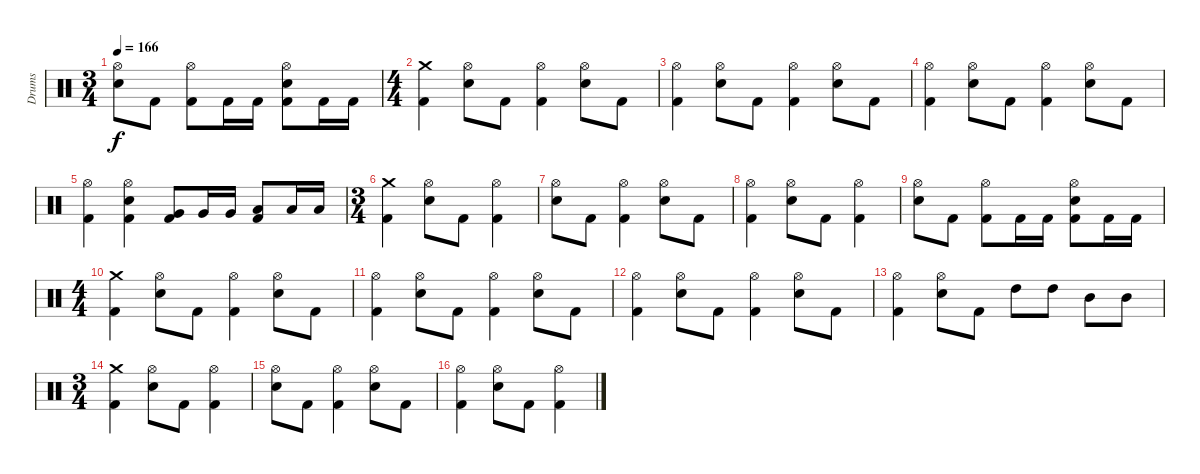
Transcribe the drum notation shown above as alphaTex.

\track ("Drums" "Drums") {instrument percussion}
\staff {score}
\articulation defaults
\ts (3 4)
\tempo 166
\clef neutral
\ks c
("Hi-Hat (open)" "Snare (hit) 2").8{dy f} "Kick (hit) 2".8 ("Hi-Hat (open)" "Kick (hit) 2").8 "Kick (hit) 2".16 "Kick (hit) 2".16 ("Hi-Hat (open)" "Snare (hit) 2" "Kick (hit) 2").8 "Kick (hit) 2".16 "Kick (hit) 2".16 |
\ts (4 4)
("Crash medium (hit)" "Kick (hit) 2").4 ("Hi-Hat (open)" "Snare (hit) 2").8 "Kick (hit) 2".8 ("Hi-Hat (open)" "Kick (hit) 2").4 ("Hi-Hat (open)" "Snare (hit) 2").8 "Kick (hit) 2".8 |
("Hi-Hat (open)" "Kick (hit) 2").4 ("Hi-Hat (open)" "Snare (hit) 2").8 "Kick (hit) 2".8 ("Hi-Hat (open)" "Kick (hit) 2").4 ("Hi-Hat (open)" "Snare (hit) 2").8 "Kick (hit) 2".8 |
("Hi-Hat (open)" "Kick (hit) 2").4 ("Hi-Hat (open)" "Snare (hit) 2").8 "Kick (hit) 2".8 ("Hi-Hat (open)" "Kick (hit) 2").4 ("Hi-Hat (open)" "Snare (hit) 2").8 "Kick (hit) 2".8 |
("Hi-Hat (open)" "Kick (hit) 2").4 ("Hi-Hat (open)" "Snare (hit) 2" "Kick (hit) 2").4 ("Very Low Tom (hit)" "Kick (hit) 2").8 "Very Low Tom (hit)".16 "Very Low Tom (hit)".16 ("Low Tom (hit)" "Kick (hit) 2").8 "Low Tom (hit)".16 "Low Tom (hit)".16 |
\ts (3 4)
("Crash medium (hit)" "Kick (hit) 2").4 ("Hi-Hat (open)" "Snare (hit) 2").8 "Kick (hit) 2".8 ("Hi-Hat (open)" "Kick (hit) 2").4 |
("Hi-Hat (open)" "Snare (hit) 2").8 "Kick (hit) 2".8 ("Hi-Hat (open)" "Kick (hit) 2").4 ("Hi-Hat (open)" "Snare (hit) 2").8 "Kick (hit) 2".8 |
("Hi-Hat (open)" "Kick (hit) 2").4 ("Hi-Hat (open)" "Snare (hit) 2").8 "Kick (hit) 2".8 ("Hi-Hat (open)" "Kick (hit) 2").4 |
("Hi-Hat (open)" "Snare (hit) 2").8 "Kick (hit) 2".8 ("Hi-Hat (open)" "Kick (hit) 2").8 "Kick (hit) 2".16 "Kick (hit) 2".16 ("Hi-Hat (open)" "Snare (hit) 2" "Kick (hit) 2").8 "Kick (hit) 2".16 "Kick (hit) 2".16 |
\ts (4 4)
("Crash medium (hit)" "Kick (hit) 2").4 ("Hi-Hat (open)" "Snare (hit) 2").8 "Kick (hit) 2".8 ("Hi-Hat (open)" "Kick (hit) 2").4 ("Hi-Hat (open)" "Snare (hit) 2").8 "Kick (hit) 2".8 |
("Hi-Hat (open)" "Kick (hit) 2").4 ("Hi-Hat (open)" "Snare (hit) 2").8 "Kick (hit) 2".8 ("Hi-Hat (open)" "Kick (hit) 2").4 ("Hi-Hat (open)" "Snare (hit) 2").8 "Kick (hit) 2".8 |
("Hi-Hat (open)" "Kick (hit) 2").4 ("Hi-Hat (open)" "Snare (hit) 2").8 "Kick (hit) 2".8 ("Hi-Hat (open)" "Kick (hit) 2").4 ("Hi-Hat (open)" "Snare (hit) 2").8 "Kick (hit) 2".8 |
("Hi-Hat (open)" "Kick (hit) 2").4 ("Hi-Hat (open)" "Snare (hit) 2").8 "Kick (hit) 2".8 "High Tom (hit)".8 "High Tom (hit)".8 "Mid Tom (hit)".8 "Mid Tom (hit)".8 |
\ts (3 4)
("Crash medium (hit)" "Kick (hit) 2").4 ("Hi-Hat (open)" "Snare (hit) 2").8 "Kick (hit) 2".8 ("Hi-Hat (open)" "Kick (hit) 2").4 |
("Hi-Hat (open)" "Snare (hit) 2").8 "Kick (hit) 2".8 ("Hi-Hat (open)" "Kick (hit) 2").4 ("Hi-Hat (open)" "Snare (hit) 2").8 "Kick (hit) 2".8 |
("Hi-Hat (open)" "Kick (hit) 2").4 ("Hi-Hat (open)" "Snare (hit) 2").8 "Kick (hit) 2".8 ("Hi-Hat (open)" "Kick (hit) 2").4
